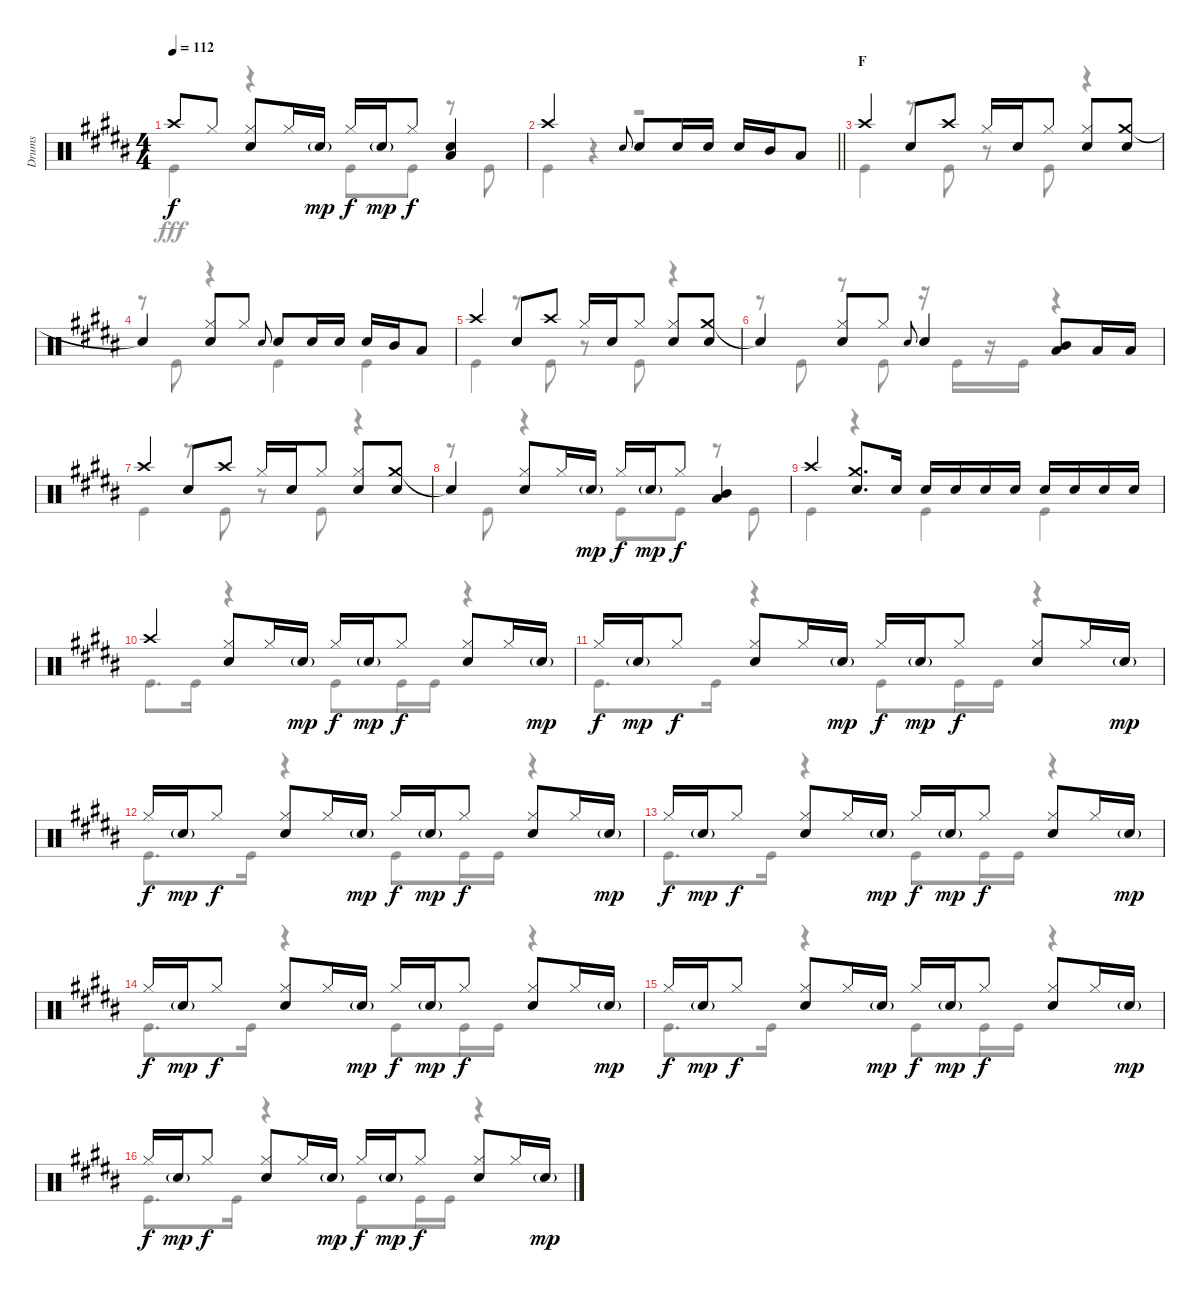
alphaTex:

\track ("Drums" "Drums") {instrument percussion}
\staff {score}
\articulation defaults
\voice
\ts (4 4)
\tempo 112
\clef neutral
\ks b "Crash high (hit)".8{dy f} "Hi-Hat (closed)".8
("Hi-Hat (closed)" "Snare (hit) 2").8 "Hi-Hat (closed)".16 "Snare (hit) 2"{g}.16{dy mp} "Hi-Hat (closed)".16{dy f} "Snare (hit) 2"{g}.16{dy mp} "Hi-Hat (closed)".8{dy f} ("Low Tom (hit)" "Snare (hit) 2").4 |
\barLineRight lightlight "Crash high (hit)".2 "Snare (hit) 2".8{gr onbeat} "Snare (hit) 2".8 "Snare (hit) 2".16 "Snare (hit) 2".16 "Snare (hit) 2".16 "Mid Tom (hit)".16 "Low Tom (hit)".8
|
\section ("" "F")
"Crash high (hit)".4 "Snare (hit) 2".8 "Crash high (hit)".8 "Hi-Hat (closed)".16 "Snare (hit) 2".16 "Hi-Hat (closed)".8 ("Hi-Hat (closed)" "Snare (hit) 2").8 ("Crash medium (hit)" "Snare (hit) 2").8 |
"Snare (hit)"{t}.4 ("Hi-Hat (closed)" "Snare (hit) 2").8 "Hi-Hat (closed)".8 "Snare (hit) 2".8{gr onbeat} "Snare (hit) 2".8 "Snare (hit) 2".16 "Snare (hit) 2".16 "Snare (hit) 2".16 "Mid Tom (hit)".16 "Low Tom (hit)".8 |
"Crash high (hit)".4 "Snare (hit) 2".8 "Crash high (hit)".8 "Hi-Hat (closed)".16 "Snare (hit) 2".16 "Hi-Hat (closed)".8 ("Hi-Hat (closed)" "Snare (hit) 2").8 ("Crash medium (hit)" "Snare (hit) 2").8 |
"Snare (hit)"{t}.4 ("Snare (hit) 2" "Hi-Hat (closed)").8 "Hi-Hat (closed)".8 "Snare (hit) 2".8{gr onbeat} "Snare (hit) 2".4 ("Mid Tom (hit)" "Low Tom (hit)").8 "Low Tom (hit)".16 "Low Tom (hit)".16 |
"Crash high (hit)".4 "Snare (hit) 2".8 "Crash high (hit)".8 "Hi-Hat (closed)".16 "Snare (hit) 2".16 "Hi-Hat (closed)".8 ("Hi-Hat (closed)" "Snare (hit) 2").8 ("Crash medium (hit)" "Snare (hit) 2").8 |
"Snare (hit)"{t}.4 ("Hi-Hat (closed)" "Snare (hit) 2").8 "Hi-Hat (closed)".16 "Snare (hit) 2"{g}.16{dy mp} "Hi-Hat (closed)".16{dy f} "Snare (hit) 2"{g}.16{dy mp} "Hi-Hat (closed)".8{dy f} ("Mid Tom (hit)" "Low Tom (hit)").4 |
"Crash high (hit)".4 ("Crash medium (hit)" "Snare (hit) 2").8{d} "Snare (hit) 2".16 "Snare (hit) 2".16 "Snare (hit) 2".16 "Snare (hit) 2".16 "Snare (hit) 2".16 "Snare (hit) 2".16 "Snare (hit) 2".16 "Snare (hit) 2".16 "Snare (hit) 2".16 |
"Crash high (hit)".4 ("Hi-Hat (closed)" "Snare (hit) 2").8 "Hi-Hat (closed)".16 "Snare (hit) 2"{g}.16{dy mp} "Hi-Hat (closed)".16{dy f} "Snare (hit) 2"{g}.16{dy mp} "Hi-Hat (closed)".8{dy f} ("Hi-Hat (closed)" "Snare (hit) 2").8 "Hi-Hat (closed)".16 "Snare (hit) 2"{g}.16{dy mp} |
"Hi-Hat (closed)".16{dy f} "Snare (hit) 2"{g}.16{dy mp} "Hi-Hat (closed)".8{dy f} ("Hi-Hat (closed)" "Snare (hit) 2").8 "Hi-Hat (closed)".16 "Snare (hit) 2"{g}.16{dy mp} "Hi-Hat (closed)".16{dy f} "Snare (hit) 2"{g}.16{dy mp} "Hi-Hat (closed)".8{dy f} ("Hi-Hat (closed)" "Snare (hit) 2").8 "Hi-Hat (closed)".16 "Snare (hit) 2"{g}.16{dy mp} |
"Hi-Hat (closed)".16{dy f} "Snare (hit) 2"{g}.16{dy mp} "Hi-Hat (closed)".8{dy f} ("Hi-Hat (closed)" "Snare (hit) 2").8 "Hi-Hat (closed)".16 "Snare (hit) 2"{g}.16{dy mp} "Hi-Hat (closed)".16{dy f} "Snare (hit) 2"{g}.16{dy mp} "Hi-Hat (closed)".8{dy f} ("Hi-Hat (closed)" "Snare (hit) 2").8 "Hi-Hat (closed)".16 "Snare (hit) 2"{g}.16{dy mp} |
"Hi-Hat (closed)".16{dy f} "Snare (hit) 2"{g}.16{dy mp} "Hi-Hat (closed)".8{dy f} ("Hi-Hat (closed)" "Snare (hit) 2").8 "Hi-Hat (closed)".16 "Snare (hit) 2"{g}.16{dy mp} "Hi-Hat (closed)".16{dy f} "Snare (hit) 2"{g}.16{dy mp} "Hi-Hat (closed)".8{dy f} ("Hi-Hat (closed)" "Snare (hit) 2").8 "Hi-Hat (closed)".16 "Snare (hit) 2"{g}.16{dy mp} |
"Hi-Hat (closed)".16{dy f} "Snare (hit) 2"{g}.16{dy mp} "Hi-Hat (closed)".8{dy f} ("Hi-Hat (closed)" "Snare (hit) 2").8 "Hi-Hat (closed)".16 "Snare (hit) 2"{g}.16{dy mp} "Hi-Hat (closed)".16{dy f} "Snare (hit) 2"{g}.16{dy mp} "Hi-Hat (closed)".8{dy f} ("Hi-Hat (closed)" "Snare (hit) 2").8 "Hi-Hat (closed)".16 "Snare (hit) 2"{g}.16{dy mp} |
"Hi-Hat (closed)".16{dy f} "Snare (hit) 2"{g}.16{dy mp} "Hi-Hat (closed)".8{dy f} ("Hi-Hat (closed)" "Snare (hit) 2").8 "Hi-Hat (closed)".16 "Snare (hit) 2"{g}.16{dy mp} "Hi-Hat (closed)".16{dy f} "Snare (hit) 2"{g}.16{dy mp} "Hi-Hat (closed)".8{dy f} ("Hi-Hat (closed)" "Snare (hit) 2").8 "Hi-Hat (closed)".16 "Snare (hit) 2"{g}.16{dy mp} |
"Hi-Hat (closed)".16{dy f} "Snare (hit) 2"{g}.16{dy mp} "Hi-Hat (closed)".8{dy f} ("Hi-Hat (closed)" "Snare (hit) 2").8 "Hi-Hat (closed)".16 "Snare (hit) 2"{g}.16{dy mp} "Hi-Hat (closed)".16{dy f} "Snare (hit) 2"{g}.16{dy mp} "Hi-Hat (closed)".8{dy f} ("Hi-Hat (closed)" "Snare (hit) 2").8 "Hi-Hat (closed)".16 "Snare (hit) 2"{g}.16{dy mp}
\voice
\clef neutral
\ottava regular
\simile none
\ks b "Kick (hit)".4{dy fff}
r.4 "Kick (hit)".8 "Kick (hit)".8 r.8 "Kick (hit)".8 |
\barLineRight lightlight "Kick (hit)".4
r.4 r.2 |
"Kick (hit)".4 r.8 "Kick (hit)".8 r.8 "Kick (hit)".8 r.4 |
r.8 "Kick (hit)".8 r.4 "Kick (hit)".4 "Kick (hit)".4 |
"Kick (hit)".4 r.8 "Kick (hit)".8 r.8 "Kick (hit)".8 r.4 |
r.8 "Kick (hit)".8 r.8 "Kick (hit)".8 r.16 "Kick (hit)".16 r.16 "Kick (hit)".16 r.4 |
"Kick (hit)".4 r.8 "Kick (hit)".8 r.8 "Kick (hit)".8 r.4 |
r.8 "Kick (hit)".8 r.4 "Kick (hit)".8 "Kick (hit)".8 r.8 "Kick (hit)".8 |
"Kick (hit)".4 r.4 "Kick (hit)".4 "Kick (hit)".4 |
"Kick (hit)".8{d} "Kick (hit)".16 r.4 "Kick (hit)".8 "Kick (hit)".16 "Kick (hit)".16 r.4 |
"Kick (hit)".8{d} "Kick (hit)".16 r.4 "Kick (hit)".8 "Kick (hit)".16 "Kick (hit)".16 r.4 |
"Kick (hit)".8{d} "Kick (hit)".16 r.4 "Kick (hit)".8 "Kick (hit)".16 "Kick (hit)".16 r.4 |
"Kick (hit)".8{d} "Kick (hit)".16 r.4 "Kick (hit)".8 "Kick (hit)".16 "Kick (hit)".16 r.4 |
"Kick (hit)".8{d} "Kick (hit)".16 r.4 "Kick (hit)".8 "Kick (hit)".16 "Kick (hit)".16 r.4 |
"Kick (hit)".8{d} "Kick (hit)".16 r.4 "Kick (hit)".8 "Kick (hit)".16 "Kick (hit)".16 r.4 |
"Kick (hit)".8{d} "Kick (hit)".16 r.4 "Kick (hit)".8 "Kick (hit)".16 "Kick (hit)".16 r.4
